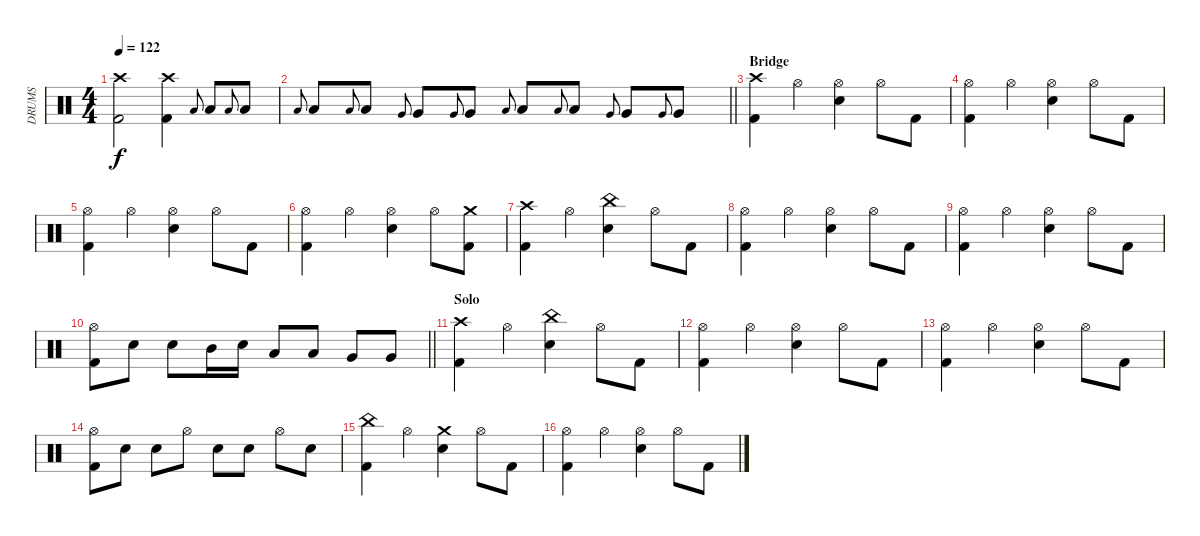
\track ("DRUMS" "DRUMS") {instrument percussion}
\staff {score}
\articulation defaults
\ts (4 4)
\tempo 122
\clef neutral
\ks c
("Crash high (hit)" "Kick (hit) 2").2{dy f} ("Crash high (hit)" "Kick (hit) 2").4 "Low Floor Tom (hit)".8{gr onbeat} "Low Floor Tom (hit)".8 "Low Floor Tom (hit)".8{gr onbeat} "Low Floor Tom (hit)".8 |
\barLineRight lightlight "Low Tom (hit)".8{gr onbeat} "Low Tom (hit)".8 "Low Tom (hit)".8{gr onbeat} "Low Tom (hit)".8 "Very Low Tom (hit)".8{gr onbeat} "Very Low Tom (hit)".8 "Very Low Tom (hit)".8{gr onbeat} "Very Low Tom (hit)".8 "Low Floor Tom (hit)".8{gr onbeat} "Low Floor Tom (hit)".8 "Low Floor Tom (hit)".8{gr onbeat} "Low Floor Tom (hit)".8 "Very Low Tom (hit)".8{gr onbeat} "Very Low Tom (hit)".8 "Very Low Tom (hit)".8{gr onbeat} "Very Low Tom (hit)".8
|
\section ("" "Bridge")
("Crash high (hit)" "Kick (hit) 2").4 "Hi-Hat (open)".4 ("Hi-Hat (open)" "Snare (hit) 2").4 "Hi-Hat (open)".8 "Kick (hit) 2".8 |
("Hi-Hat (open)" "Kick (hit) 2").4 "Hi-Hat (open)".4 ("Hi-Hat (open)" "Snare (hit) 2").4 "Hi-Hat (open)".8 "Kick (hit) 2".8 |
("Hi-Hat (open)" "Kick (hit) 2").4 "Hi-Hat (open)".4 ("Hi-Hat (open)" "Snare (hit) 2").4 "Hi-Hat (open)".8 "Kick (hit) 2".8 |
("Hi-Hat (open)" "Kick (hit) 2").4 "Hi-Hat (open)".4 ("Hi-Hat (open)" "Snare (hit) 2").4 "Hi-Hat (open)".8 ("Crash medium (hit)" "Kick (hit) 2").8 |
("Crash high (hit)" "Kick (hit) 2").4 "Hi-Hat (open)".4 ("China (hit)" "Snare (hit) 2").4 "Hi-Hat (open)".8 "Kick (hit) 2".8 |
("Hi-Hat (open)" "Kick (hit) 2").4 "Hi-Hat (open)".4 ("Hi-Hat (open)" "Snare (hit) 2").4 "Hi-Hat (open)".8 "Kick (hit) 2".8 |
("Hi-Hat (open)" "Kick (hit) 2").4 "Hi-Hat (open)".4 ("Hi-Hat (open)" "Snare (hit) 2").4 "Hi-Hat (open)".8 "Kick (hit) 2".8 |
\barLineRight lightlight
("Hi-Hat (open)" "Kick (hit) 2").8 "Snare (hit) 2".8 "Snare (hit) 2".8 "Mid Tom (hit)".16 "Snare (hit) 2".16 "Low Tom (hit)".8 "Low Tom (hit)".8 "Very Low Tom (hit)".8 "Very Low Tom (hit)".8 |
\section ("" "Solo")
("Crash high (hit)" "Kick (hit) 2").4 "Hi-Hat (open)".4 ("China (hit)" "Snare (hit) 2").4 "Hi-Hat (open)".8 "Kick (hit) 2".8 |
("Hi-Hat (open)" "Kick (hit) 2").4 "Hi-Hat (open)".4 ("Hi-Hat (open)" "Snare (hit) 2").4 "Hi-Hat (open)".8 "Kick (hit) 2".8 |
("Hi-Hat (open)" "Kick (hit) 2").4 "Hi-Hat (open)".4 ("Hi-Hat (open)" "Snare (hit) 2").4 "Hi-Hat (open)".8 "Kick (hit) 2".8 |
("Hi-Hat (open)" "Kick (hit) 2").8 "Snare (hit) 2".8 "Snare (hit) 2".8 "Hi-Hat (open)".8 "Snare (hit) 2".8 "Snare (hit) 2".8 "Hi-Hat (open)".8 "Snare (hit) 2".8 |
("China (hit)" "Kick (hit) 2").4 "Hi-Hat (open)".4 ("Crash medium (hit)" "Snare (hit) 2").4 "Hi-Hat (open)".8 "Kick (hit) 2".8 |
("Hi-Hat (open)" "Kick (hit) 2").4 "Hi-Hat (open)".4 ("Hi-Hat (open)" "Snare (hit) 2").4 "Hi-Hat (open)".8 "Kick (hit) 2".8
